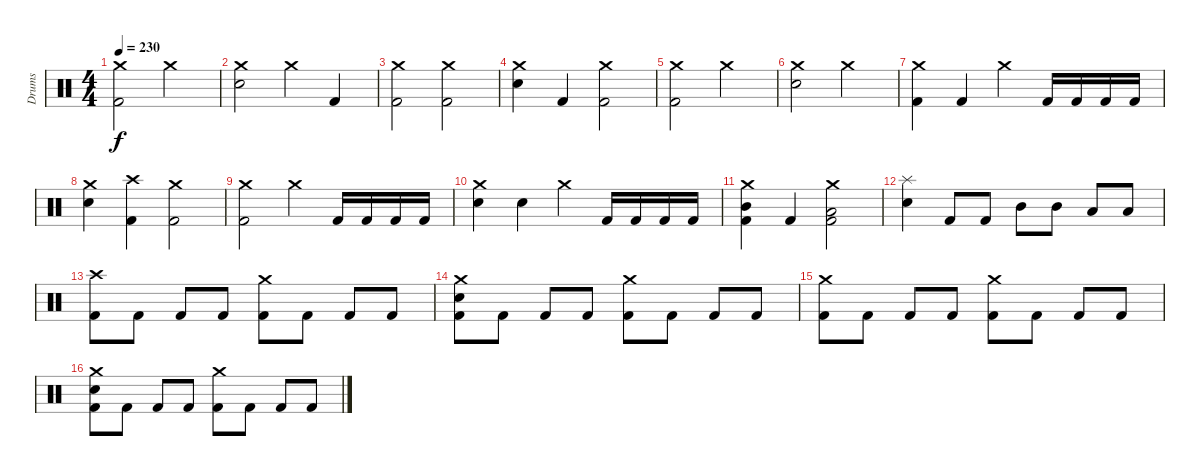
\track ("Drums" "Drums") {instrument percussion}
\staff {score}
\articulation defaults
\ts (4 4)
\tempo 230
\clef neutral
\ks c
("Crash medium (hit)" "Kick (hit) 2").2{dy f} "Crash medium (hit)".2 |
("Crash medium (hit)" "Electric Snare (hit)").2 "Crash medium (hit)".4 "Kick (hit) 2".4 |
("Crash medium (hit)" "Kick (hit) 2").2 ("Crash medium (hit)" "Kick (hit) 2").2 |
("Crash medium (hit)" "Electric Snare (hit)").4 "Kick (hit) 2".4 ("Crash medium (hit)" "Kick (hit) 2").2 |
("Crash medium (hit)" "Kick (hit) 2").2 "Crash medium (hit)".2 |
("Crash medium (hit)" "Electric Snare (hit)").2 "Crash medium (hit)".2 |
("Crash medium (hit)" "Kick (hit) 2").4 "Kick (hit) 2".4 "Crash medium (hit)".4 "Kick (hit) 2".16 "Kick (hit) 2".16 "Kick (hit) 2".16 "Kick (hit) 2".16 |
("Crash medium (hit)" "Electric Snare (hit)").4 ("Crash high (hit)" "Kick (hit) 2").4 ("Crash medium (hit)" "Kick (hit) 2").2 |
("Crash medium (hit)" "Kick (hit) 2").2 "Crash medium (hit)".4 "Kick (hit) 2".16 "Kick (hit) 2".16 "Kick (hit) 2".16 "Kick (hit) 2".16 |
("Crash medium (hit)" "Electric Snare (hit)").4 "Electric Snare (hit)".4 "Crash medium (hit)".4 "Kick (hit) 2".16 "Kick (hit) 2".16 "Kick (hit) 2".16 "Kick (hit) 2".16 |
("Crash medium (hit)" "Mid Tom (hit)" "Kick (hit) 2").4 "Kick (hit) 2".4 ("Crash medium (hit)" "Low Floor Tom (hit)" "Kick (hit) 2").2 |
("Splash (hit)" "Electric Snare (hit)").4 "Kick (hit) 2".8 "Kick (hit) 2".8 "Mid Tom (hit)".8 "Mid Tom (hit)".8 "Low Tom (hit)".8 "Low Tom (hit)".8 |
("Crash high (hit)" "Kick (hit) 2").8 "Kick (hit) 2".8 "Kick (hit) 2".8 "Kick (hit) 2".8 ("Crash medium (hit)" "Kick (hit) 2").8 "Kick (hit) 2".8 "Kick (hit) 2".8 "Kick (hit) 2".8 |
("Crash medium (hit)" "Electric Snare (hit)" "Kick (hit) 2").8 "Kick (hit) 2".8 "Kick (hit) 2".8 "Kick (hit) 2".8 ("Crash medium (hit)" "Kick (hit) 2").8 "Kick (hit) 2".8 "Kick (hit) 2".8 "Kick (hit) 2".8 |
("Crash medium (hit)" "Kick (hit) 2").8 "Kick (hit) 2".8 "Kick (hit) 2".8 "Kick (hit) 2".8 ("Crash medium (hit)" "Kick (hit) 2").8 "Kick (hit) 2".8 "Kick (hit) 2".8 "Kick (hit) 2".8 |
("Crash medium (hit)" "Electric Snare (hit)" "Kick (hit) 2").8 "Kick (hit) 2".8 "Kick (hit) 2".8 "Kick (hit) 2".8 ("Crash medium (hit)" "Kick (hit) 2").8 "Kick (hit) 2".8 "Kick (hit) 2".8 "Kick (hit) 2".8
